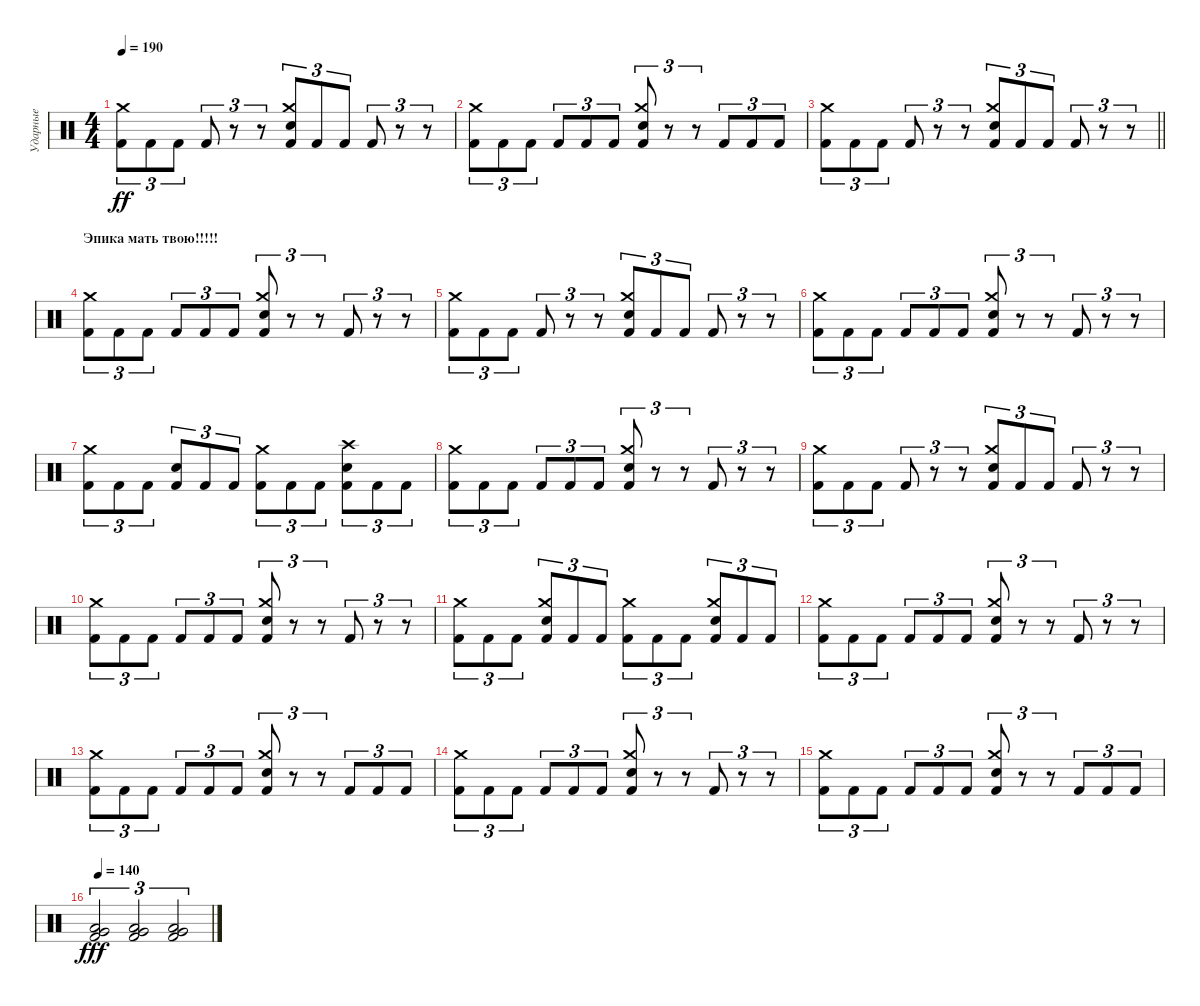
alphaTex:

\track ("Ударные" "Ударные") {instrument percussion}
\staff {score}
\articulation defaults
\ts (4 4)
\tempo 190
\clef neutral
\ks c
("Kick (hit) 2" "Crash medium (hit)").8{tu (3 2) dy ff} "Kick (hit) 2".8{tu (3 2)} "Kick (hit) 2".8{tu (3 2)} "Kick (hit) 2".8{tu (3 2)} r.8{tu (3 2)} r.8{tu (3 2)} ("Kick (hit) 2" "Snare (hit) 2" "Crash medium (hit)").8{tu (3 2)} "Kick (hit) 2".8{tu (3 2)} "Kick (hit) 2".8{tu (3 2)} "Kick (hit) 2".8{tu (3 2)} r.8{tu (3 2)} r.8{tu (3 2)} |
("Kick (hit) 2" "Crash medium (hit)").8{tu (3 2)} "Kick (hit) 2".8{tu (3 2)} "Kick (hit) 2".8{tu (3 2)} "Kick (hit) 2".8{tu (3 2)} "Kick (hit) 2".8{tu (3 2)} "Kick (hit) 2".8{tu (3 2)} ("Kick (hit) 2" "Snare (hit) 2" "Crash medium (hit)").8{tu (3 2)} r.8{tu (3 2)} r.8{tu (3 2)} "Kick (hit) 2".8{tu (3 2)} "Kick (hit) 2".8{tu (3 2)} "Kick (hit) 2".8{tu (3 2)} |
\barLineRight lightlight
("Kick (hit) 2" "Crash medium (hit)").8{tu (3 2)} "Kick (hit) 2".8{tu (3 2)} "Kick (hit) 2".8{tu (3 2)} "Kick (hit) 2".8{tu (3 2)} r.8{tu (3 2)} r.8{tu (3 2)} ("Kick (hit) 2" "Snare (hit) 2" "Crash medium (hit)").8{tu (3 2)} "Kick (hit) 2".8{tu (3 2)} "Kick (hit) 2".8{tu (3 2)} "Kick (hit) 2".8{tu (3 2)} r.8{tu (3 2)} r.8{tu (3 2)} |
\section ("" "Эпика мать твою!!!!!")
("Kick (hit) 2" "Crash medium (hit)").8{tu (3 2)} "Kick (hit) 2".8{tu (3 2)} "Kick (hit) 2".8{tu (3 2)} "Kick (hit) 2".8{tu (3 2)} "Kick (hit) 2".8{tu (3 2)} "Kick (hit) 2".8{tu (3 2)} ("Kick (hit) 2" "Snare (hit) 2" "Crash medium (hit)").8{tu (3 2)} r.8{tu (3 2)} r.8{tu (3 2)} "Kick (hit) 2".8{tu (3 2)} r.8{tu (3 2)} r.8{tu (3 2)} |
("Kick (hit) 2" "Crash medium (hit)").8{tu (3 2)} "Kick (hit) 2".8{tu (3 2)} "Kick (hit) 2".8{tu (3 2)} "Kick (hit) 2".8{tu (3 2)} r.8{tu (3 2)} r.8{tu (3 2)} ("Kick (hit) 2" "Snare (hit) 2" "Crash medium (hit)").8{tu (3 2)} "Kick (hit) 2".8{tu (3 2)} "Kick (hit) 2".8{tu (3 2)} "Kick (hit) 2".8{tu (3 2)} r.8{tu (3 2)} r.8{tu (3 2)} |
("Kick (hit) 2" "Crash medium (hit)").8{tu (3 2)} "Kick (hit) 2".8{tu (3 2)} "Kick (hit) 2".8{tu (3 2)} "Kick (hit) 2".8{tu (3 2)} "Kick (hit) 2".8{tu (3 2)} "Kick (hit) 2".8{tu (3 2)} ("Kick (hit) 2" "Snare (hit) 2" "Crash medium (hit)").8{tu (3 2)} r.8{tu (3 2)} r.8{tu (3 2)} "Kick (hit) 2".8{tu (3 2)} r.8{tu (3 2)} r.8{tu (3 2)} |
("Kick (hit) 2" "Crash medium (hit)").8{tu (3 2)} "Kick (hit) 2".8{tu (3 2)} "Kick (hit) 2".8{tu (3 2)} ("Kick (hit) 2" "Snare (hit) 2").8{tu (3 2)} "Kick (hit) 2".8{tu (3 2)} "Kick (hit) 2".8{tu (3 2)} ("Kick (hit) 2" "Crash medium (hit)").8{tu (3 2)} "Kick (hit) 2".8{tu (3 2)} "Kick (hit) 2".8{tu (3 2)} ("Kick (hit) 2" "Crash high (hit)" "Snare (hit) 2").8{tu (3 2)} "Kick (hit) 2".8{tu (3 2)} "Kick (hit) 2".8{tu (3 2)} |
("Kick (hit) 2" "Crash medium (hit)").8{tu (3 2)} "Kick (hit) 2".8{tu (3 2)} "Kick (hit) 2".8{tu (3 2)} "Kick (hit) 2".8{tu (3 2)} "Kick (hit) 2".8{tu (3 2)} "Kick (hit) 2".8{tu (3 2)} ("Kick (hit) 2" "Snare (hit) 2" "Crash medium (hit)").8{tu (3 2)} r.8{tu (3 2)} r.8{tu (3 2)} "Kick (hit) 2".8{tu (3 2)} r.8{tu (3 2)} r.8{tu (3 2)} |
("Kick (hit) 2" "Crash medium (hit)").8{tu (3 2)} "Kick (hit) 2".8{tu (3 2)} "Kick (hit) 2".8{tu (3 2)} "Kick (hit) 2".8{tu (3 2)} r.8{tu (3 2)} r.8{tu (3 2)} ("Kick (hit) 2" "Snare (hit) 2" "Crash medium (hit)").8{tu (3 2)} "Kick (hit) 2".8{tu (3 2)} "Kick (hit) 2".8{tu (3 2)} "Kick (hit) 2".8{tu (3 2)} r.8{tu (3 2)} r.8{tu (3 2)} |
("Kick (hit) 2" "Crash medium (hit)").8{tu (3 2)} "Kick (hit) 2".8{tu (3 2)} "Kick (hit) 2".8{tu (3 2)} "Kick (hit) 2".8{tu (3 2)} "Kick (hit) 2".8{tu (3 2)} "Kick (hit) 2".8{tu (3 2)} ("Kick (hit) 2" "Snare (hit) 2" "Crash medium (hit)").8{tu (3 2)} r.8{tu (3 2)} r.8{tu (3 2)} "Kick (hit) 2".8{tu (3 2)} r.8{tu (3 2)} r.8{tu (3 2)} |
("Kick (hit) 2" "Crash medium (hit)").8{tu (3 2)} "Kick (hit) 2".8{tu (3 2)} "Kick (hit) 2".8{tu (3 2)} ("Kick (hit) 2" "Snare (hit) 2" "Crash medium (hit)").8{tu (3 2)} "Kick (hit) 2".8{tu (3 2)} "Kick (hit) 2".8{tu (3 2)} ("Kick (hit) 2" "Crash medium (hit)").8{tu (3 2)} "Kick (hit) 2".8{tu (3 2)} "Kick (hit) 2".8{tu (3 2)} ("Kick (hit) 2" "Snare (hit) 2" "Crash medium (hit)").8{tu (3 2)} "Kick (hit) 2".8{tu (3 2)} "Kick (hit) 2".8{tu (3 2)} |
("Kick (hit) 2" "Crash medium (hit)").8{tu (3 2)} "Kick (hit) 2".8{tu (3 2)} "Kick (hit) 2".8{tu (3 2)} "Kick (hit) 2".8{tu (3 2)} "Kick (hit) 2".8{tu (3 2)} "Kick (hit) 2".8{tu (3 2)} ("Kick (hit) 2" "Crash medium (hit)" "Snare (hit) 2").8{tu (3 2)} r.8{tu (3 2)} r.8{tu (3 2)} "Kick (hit) 2".8{tu (3 2)} r.8{tu (3 2)} r.8{tu (3 2)} |
("Kick (hit) 2" "Crash medium (hit)").8{tu (3 2)} "Kick (hit) 2".8{tu (3 2)} "Kick (hit) 2".8{tu (3 2)} "Kick (hit) 2".8{tu (3 2)} "Kick (hit) 2".8{tu (3 2)} "Kick (hit) 2".8{tu (3 2)} ("Kick (hit) 2" "Crash medium (hit)" "Snare (hit) 2").8{tu (3 2)} r.8{tu (3 2)} r.8{tu (3 2)} "Kick (hit) 2".8{tu (3 2)} "Kick (hit) 2".8{tu (3 2)} "Kick (hit) 2".8{tu (3 2)} |
("Kick (hit) 2" "Crash medium (hit)").8{tu (3 2)} "Kick (hit) 2".8{tu (3 2)} "Kick (hit) 2".8{tu (3 2)} "Kick (hit) 2".8{tu (3 2)} "Kick (hit) 2".8{tu (3 2)} "Kick (hit) 2".8{tu (3 2)} ("Kick (hit) 2" "Crash medium (hit)" "Snare (hit) 2").8{tu (3 2)} r.8{tu (3 2)} r.8{tu (3 2)} "Kick (hit) 2".8{tu (3 2)} r.8{tu (3 2)} r.8{tu (3 2)} |
("Kick (hit) 2" "Crash medium (hit)").8{tu (3 2)} "Kick (hit) 2".8{tu (3 2)} "Kick (hit) 2".8{tu (3 2)} "Kick (hit) 2".8{tu (3 2)} "Kick (hit) 2".8{tu (3 2)} "Kick (hit) 2".8{tu (3 2)} ("Kick (hit) 2" "Crash medium (hit)" "Snare (hit) 2").8{tu (3 2)} r.8{tu (3 2)} r.8{tu (3 2)} "Kick (hit) 2".8{tu (3 2)} "Kick (hit) 2".8{tu (3 2)} "Kick (hit) 2".8{tu (3 2)} |
\tempo 140
("Kick (hit) 2" "Low Tom (hit)" "Very Low Tom (hit)").2{tu (3 2) dy fff} ("Kick (hit) 2" "Low Tom (hit)" "Very Low Tom (hit)").2{tu (3 2)} ("Kick (hit) 2" "Low Tom (hit)" "Very Low Tom (hit)").2{tu (3 2)}
